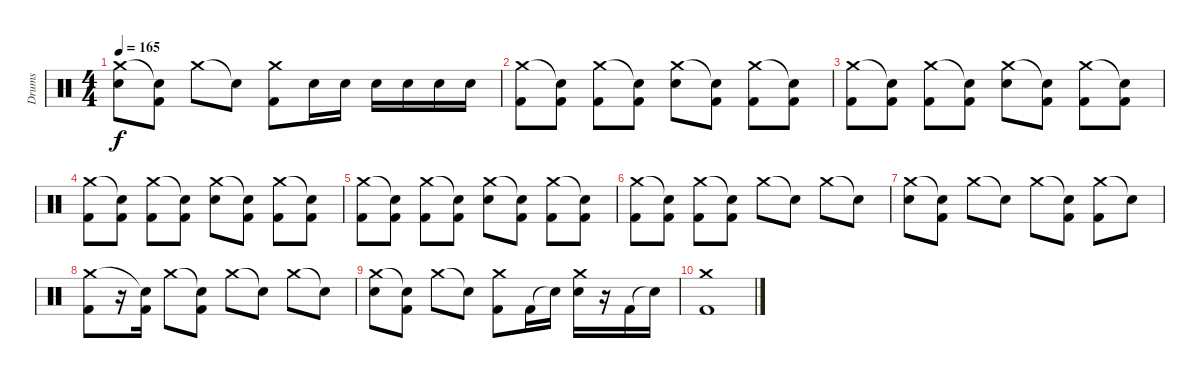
\track ("Drums" "Drums") {instrument percussion}
\staff {score}
\articulation defaults
\ts (4 4)
\tempo 165
\clef neutral
\ks c
("Crash medium (hit)" "Electric Snare (hit)").8{dy f} ("Snare (hit)"{t} "Kick (hit) 2").8 "Crash medium (hit)".8 "Snare (hit)"{t}.8 ("Crash medium (hit)" "Kick (hit) 2").8 "Electric Snare (hit)".16 "Electric Snare (hit)".16 "Electric Snare (hit)".16 "Electric Snare (hit)".16 "Electric Snare (hit)".16 "Electric Snare (hit)".16 |
("Crash medium (hit)" "Kick (hit) 2").8 ("Snare (hit)"{t} "Kick (hit) 2").8 ("Crash medium (hit)" "Kick (hit) 2").8 ("Snare (hit)"{t} "Kick (hit) 2").8 ("Crash medium (hit)" "Electric Snare (hit)").8 ("Snare (hit)"{t} "Kick (hit) 2").8 ("Crash medium (hit)" "Kick (hit) 2").8 ("Snare (hit)"{t} "Kick (hit) 2").8 |
("Crash medium (hit)" "Kick (hit) 2").8 ("Snare (hit)"{t} "Kick (hit) 2").8 ("Crash medium (hit)" "Kick (hit) 2").8 ("Snare (hit)"{t} "Kick (hit) 2").8 ("Crash medium (hit)" "Electric Snare (hit)").8 ("Snare (hit)"{t} "Kick (hit) 2").8 ("Crash medium (hit)" "Kick (hit) 2").8 ("Snare (hit)"{t} "Kick (hit) 2").8 |
("Crash medium (hit)" "Kick (hit) 2").8 ("Snare (hit)"{t} "Kick (hit) 2").8 ("Crash medium (hit)" "Kick (hit) 2").8 ("Snare (hit)"{t} "Kick (hit) 2").8 ("Crash medium (hit)" "Electric Snare (hit)").8 ("Snare (hit)"{t} "Kick (hit) 2").8 ("Crash medium (hit)" "Kick (hit) 2").8 ("Snare (hit)"{t} "Kick (hit) 2").8 |
("Crash medium (hit)" "Kick (hit) 2").8 ("Snare (hit)"{t} "Kick (hit) 2").8 ("Crash medium (hit)" "Kick (hit) 2").8 ("Snare (hit)"{t} "Kick (hit) 2").8 ("Crash medium (hit)" "Electric Snare (hit)").8 ("Snare (hit)"{t} "Kick (hit) 2").8 ("Crash medium (hit)" "Kick (hit) 2").8 ("Snare (hit)"{t} "Kick (hit) 2").8 |
("Crash medium (hit)" "Kick (hit) 2").8 ("Snare (hit)"{t} "Kick (hit) 2").8 ("Crash medium (hit)" "Kick (hit) 2").8 ("Snare (hit)"{t} "Kick (hit) 2").8 "Crash medium (hit)".8 "Snare (hit)"{t}.8 "Crash medium (hit)".8 "Snare (hit)"{t}.8 |
("Crash medium (hit)" "Electric Snare (hit)").8 ("Snare (hit)"{t} "Kick (hit) 2").8 "Crash medium (hit)".8 "Snare (hit)"{t}.8 "Crash medium (hit)".8 ("Snare (hit)"{t} "Kick (hit) 2").8 ("Crash medium (hit)" "Kick (hit) 2").8 "Snare (hit)"{t}.8 |
("Crash medium (hit)" "Kick (hit) 2").8 r.16 ("Snare (hit)"{t} "Kick (hit) 2").16 "Crash medium (hit)".8 ("Snare (hit)"{t} "Kick (hit) 2").8 "Crash medium (hit)".8 "Snare (hit)"{t}.8 "Crash medium (hit)".8 "Snare (hit)"{t}.8 |
("Crash medium (hit)" "Electric Snare (hit)").8 ("Snare (hit)"{t} "Kick (hit) 2").8 "Crash medium (hit)".8 "Snare (hit)"{t}.8 ("Crash medium (hit)" "Kick (hit) 2").8 "Kick (hit) 2".16 "Snare (hit)"{t}.16 ("Crash medium (hit)" "Electric Snare (hit)").16 r.16 "Kick (hit) 2".16 "Snare (hit)"{t}.16 |
("Crash medium (hit)" "Kick (hit) 2").1
